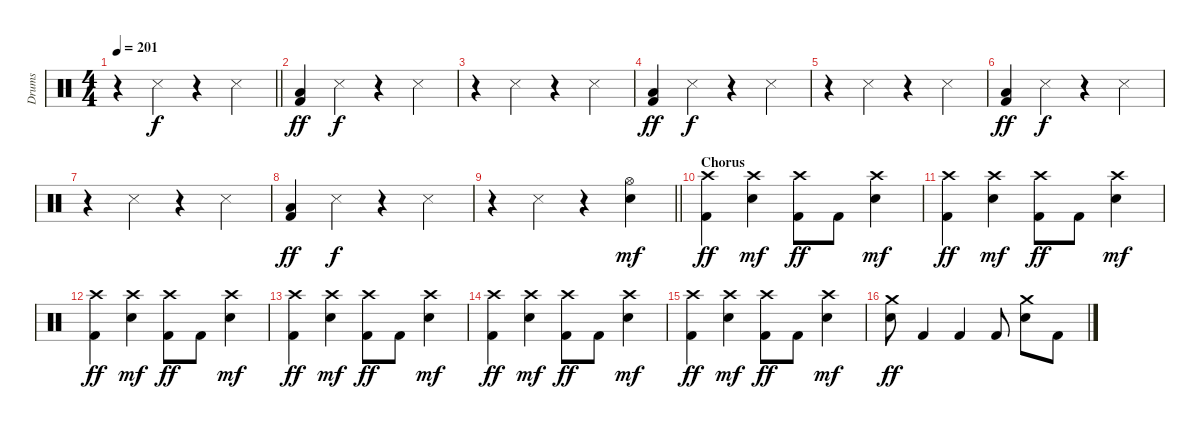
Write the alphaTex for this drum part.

\track ("Drums" "Drums") {instrument percussion}
\staff {score}
\articulation defaults
\ts (4 4)
\tempo 201
\clef neutral
\barLineRight lightlight
\ks c
r.4{dy f} "Snare (side stick) 3".4 r.4 "Snare (side stick) 3".4 |
("Low Floor Tom (hit)" "Kick (hit) 2").4{dy ff} "Snare (side stick) 3".4{dy f} r.4 "Snare (side stick) 3".4 |
r.4 "Snare (side stick) 3".4 r.4 "Snare (side stick) 3".4 |
("Low Floor Tom (hit)" "Kick (hit) 2").4{dy ff} "Snare (side stick) 3".4{dy f} r.4 "Snare (side stick) 3".4 |
r.4 "Snare (side stick) 3".4 r.4 "Snare (side stick) 3".4 |
("Low Floor Tom (hit)" "Kick (hit) 2").4{dy ff} "Snare (side stick) 3".4{dy f} r.4 "Snare (side stick) 3".4 |
r.4 "Snare (side stick) 3".4 r.4 "Snare (side stick) 3".4 |
("Low Floor Tom (hit)" "Kick (hit) 2").4{dy ff} "Snare (side stick) 3".4{dy f} r.4 "Snare (side stick) 3".4 |
\barLineRight lightlight
r.4 "Snare (side stick) 3".4 r.4 ("Hi-Hat (open)" "Snare (hit) 2").4{dy mf} |
\section ("" "Chorus")
("Crash high (hit)" "Kick (hit) 2").4{dy ff} ("Crash high (hit)" "Snare (hit) 2").4{dy mf} ("Crash high (hit)" "Kick (hit) 2").8{dy ff} "Kick (hit) 2".8 ("Crash high (hit)" "Snare (hit) 2").4{dy mf} |
("Crash high (hit)" "Kick (hit) 2").4{dy ff} ("Crash high (hit)" "Snare (hit) 2").4{dy mf} ("Crash high (hit)" "Kick (hit) 2").8{dy ff} "Kick (hit) 2".8 ("Crash high (hit)" "Snare (hit) 2").4{dy mf} |
("Crash high (hit)" "Kick (hit) 2").4{dy ff} ("Crash high (hit)" "Snare (hit) 2").4{dy mf} ("Crash high (hit)" "Kick (hit) 2").8{dy ff} "Kick (hit) 2".8 ("Crash high (hit)" "Snare (hit) 2").4{dy mf} |
("Crash high (hit)" "Kick (hit) 2").4{dy ff} ("Crash high (hit)" "Snare (hit) 2").4{dy mf} ("Crash high (hit)" "Kick (hit) 2").8{dy ff} "Kick (hit) 2".8 ("Crash high (hit)" "Snare (hit) 2").4{dy mf} |
("Crash high (hit)" "Kick (hit) 2").4{dy ff} ("Crash high (hit)" "Snare (hit) 2").4{dy mf} ("Crash high (hit)" "Kick (hit) 2").8{dy ff} "Kick (hit) 2".8 ("Crash high (hit)" "Snare (hit) 2").4{dy mf} |
("Crash high (hit)" "Kick (hit) 2").4{dy ff} ("Crash high (hit)" "Snare (hit) 2").4{dy mf} ("Crash high (hit)" "Kick (hit) 2").8{dy ff} "Kick (hit) 2".8 ("Crash high (hit)" "Snare (hit) 2").4{dy mf} |
("Crash medium (hit)" "Snare (hit) 2").8{dy ff} "Kick (hit) 2".4 "Kick (hit) 2".4 "Kick (hit) 2".8 ("Crash medium (hit)" "Snare (hit) 2").8 "Kick (hit) 2".8
